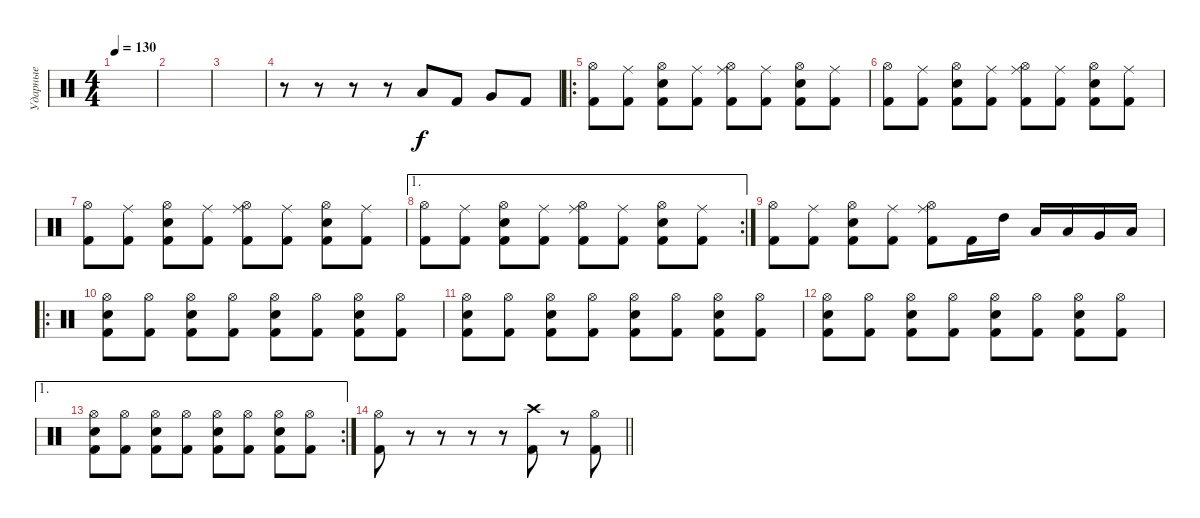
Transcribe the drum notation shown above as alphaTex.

\track ("Ударные" "Ударные") {instrument percussion}
\staff {score}
\articulation defaults
\ts (4 4)
\tempo 130
\clef neutral
\ks c
|
|
|
r.8 r.8 r.8 r.8 "Low Floor Tom (hit)".8 "Kick (hit) 2".8 "Very Low Tom (hit)".8 "Kick (hit) 2".8 |
\ro
("Kick (hit) 2" "Hi-Hat (open)").8 ("Kick (hit) 2" "Ride (middle)").8 ("Kick (hit) 2" "Electric Snare (hit)" "Hi-Hat (open)").8 ("Kick (hit) 2" "Ride (middle)").8 ("Kick (hit) 2" "Ride (middle)" "Hi-Hat (open)").8 ("Kick (hit) 2" "Ride (middle)").8 ("Kick (hit) 2" "Electric Snare (hit)" "Hi-Hat (open)").8 ("Kick (hit) 2" "Ride (middle)").8 |
("Kick (hit) 2" "Hi-Hat (open)").8 ("Kick (hit) 2" "Ride (middle)").8 ("Kick (hit) 2" "Electric Snare (hit)" "Hi-Hat (open)").8 ("Kick (hit) 2" "Ride (middle)").8 ("Kick (hit) 2" "Ride (middle)" "Hi-Hat (open)").8 ("Kick (hit) 2" "Ride (middle)").8 ("Kick (hit) 2" "Electric Snare (hit)" "Hi-Hat (open)").8 ("Kick (hit) 2" "Ride (middle)").8 |
("Kick (hit) 2" "Hi-Hat (open)").8 ("Kick (hit) 2" "Ride (middle)").8 ("Kick (hit) 2" "Electric Snare (hit)" "Hi-Hat (open)").8 ("Kick (hit) 2" "Ride (middle)").8 ("Kick (hit) 2" "Ride (middle)" "Hi-Hat (open)").8 ("Kick (hit) 2" "Ride (middle)").8 ("Kick (hit) 2" "Electric Snare (hit)" "Hi-Hat (open)").8 ("Kick (hit) 2" "Ride (middle)").8 |
\ae 1
\rc 2
("Kick (hit) 2" "Hi-Hat (open)").8 ("Kick (hit) 2" "Ride (middle)").8 ("Kick (hit) 2" "Electric Snare (hit)" "Hi-Hat (open)").8 ("Kick (hit) 2" "Ride (middle)").8 ("Kick (hit) 2" "Ride (middle)" "Hi-Hat (open)").8 ("Kick (hit) 2" "Ride (middle)").8 ("Kick (hit) 2" "Electric Snare (hit)" "Hi-Hat (open)").8 ("Kick (hit) 2" "Ride (middle)").8 |
("Kick (hit) 2" "Hi-Hat (open)").8 ("Kick (hit) 2" "Ride (middle)").8 ("Kick (hit) 2" "Electric Snare (hit)" "Hi-Hat (open)").8 ("Kick (hit) 2" "Ride (middle)").8 ("Kick (hit) 2" "Ride (middle)" "Hi-Hat (open)").8 "Kick (hit) 2".16 "High Tom (hit)".16 "Low Tom (hit)".16 "Low Tom (hit)".16 "Very Low Tom (hit)".16 "Low Floor Tom (hit)".16 |
\ro
("Kick (hit) 2" "Electric Snare (hit)" "Hi-Hat (open)").8 ("Kick (hit) 2" "Hi-Hat (open)").8 ("Kick (hit) 2" "Electric Snare (hit)" "Hi-Hat (open)").8 ("Kick (hit) 2" "Hi-Hat (open)").8 ("Kick (hit) 2" "Electric Snare (hit)" "Hi-Hat (open)").8 ("Kick (hit) 2" "Hi-Hat (open)").8 ("Kick (hit) 2" "Electric Snare (hit)" "Hi-Hat (open)").8 ("Kick (hit) 2" "Hi-Hat (open)").8 |
("Kick (hit) 2" "Electric Snare (hit)" "Hi-Hat (open)").8 ("Kick (hit) 2" "Hi-Hat (open)").8 ("Kick (hit) 2" "Electric Snare (hit)" "Hi-Hat (open)").8 ("Kick (hit) 2" "Hi-Hat (open)").8 ("Kick (hit) 2" "Electric Snare (hit)" "Hi-Hat (open)").8 ("Kick (hit) 2" "Hi-Hat (open)").8 ("Kick (hit) 2" "Electric Snare (hit)" "Hi-Hat (open)").8 ("Kick (hit) 2" "Hi-Hat (open)").8 |
("Kick (hit) 2" "Electric Snare (hit)" "Hi-Hat (open)").8 ("Kick (hit) 2" "Hi-Hat (open)").8 ("Kick (hit) 2" "Electric Snare (hit)" "Hi-Hat (open)").8 ("Kick (hit) 2" "Hi-Hat (open)").8 ("Kick (hit) 2" "Electric Snare (hit)" "Hi-Hat (open)").8 ("Kick (hit) 2" "Hi-Hat (open)").8 ("Kick (hit) 2" "Electric Snare (hit)" "Hi-Hat (open)").8 ("Kick (hit) 2" "Hi-Hat (open)").8 |
\ae 1
\rc 2
("Kick (hit) 2" "Electric Snare (hit)" "Hi-Hat (open)").8 ("Kick (hit) 2" "Hi-Hat (open)").8 ("Kick (hit) 2" "Electric Snare (hit)" "Hi-Hat (open)").8 ("Kick (hit) 2" "Hi-Hat (open)").8 ("Kick (hit) 2" "Electric Snare (hit)" "Hi-Hat (open)").8 ("Kick (hit) 2" "Hi-Hat (open)").8 ("Kick (hit) 2" "Electric Snare (hit)" "Hi-Hat (open)").8 ("Kick (hit) 2" "Hi-Hat (open)").8 |
\barLineRight lightlight
("Kick (hit) 2" "Hi-Hat (open)").8 r.8 r.8 r.8 r.8 ("Kick (hit) 2" "Crash high (hit)").8 r.8 ("Kick (hit) 2" "Hi-Hat (open)").8
